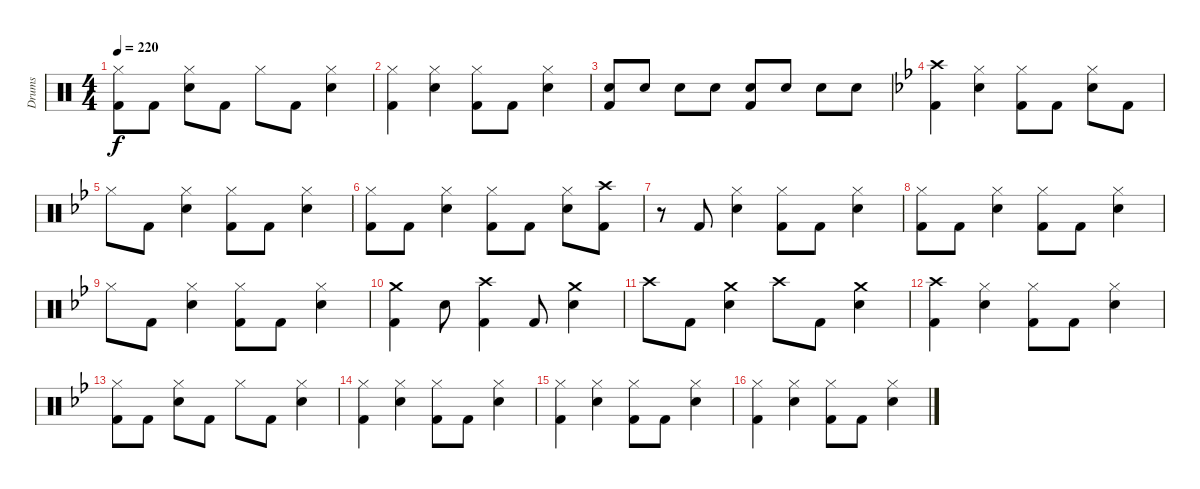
\track ("Drums" "Drums") {instrument percussion}
\staff {score}
\articulation defaults
\ts (4 4)
\tempo 220
\clef neutral
\ks aminor
("Kick (hit) 2" "Hi-Hat (closed)").8{dy f} "Kick (hit) 2".8 ("Snare (hit) 2" "Hi-Hat (closed)").8 "Kick (hit) 2".8 "Hi-Hat (closed)".8 "Kick (hit) 2".8 ("Snare (hit) 2" "Hi-Hat (closed)").4 |
("Kick (hit) 2" "Hi-Hat (closed)").4 ("Snare (hit) 2" "Hi-Hat (closed)").4 ("Kick (hit) 2" "Hi-Hat (closed)").8 "Kick (hit) 2".8 ("Snare (hit) 2" "Hi-Hat (closed)").4 |
("Kick (hit) 2" "Snare (hit) 2").8 "Snare (hit) 2".8 "Snare (hit) 2".8 "Snare (hit) 2".8 ("Kick (hit) 2" "Snare (hit) 2").8 "Snare (hit) 2".8 "Snare (hit) 2".8 "Snare (hit) 2".8 |
\ks gminor
("Kick (hit) 2" "Crash high (hit)").4 ("Snare (hit) 2" "Hi-Hat (closed)").4 ("Kick (hit) 2" "Hi-Hat (closed)").8 "Kick (hit) 2".8 ("Snare (hit) 2" "Hi-Hat (closed)").8 "Kick (hit) 2".8 |
"Hi-Hat (closed)".8 "Kick (hit) 2".8 ("Snare (hit) 2" "Hi-Hat (closed)").4 ("Kick (hit) 2" "Hi-Hat (closed)").8 "Kick (hit) 2".8 ("Snare (hit) 2" "Hi-Hat (closed)").4 |
("Kick (hit) 2" "Hi-Hat (closed)").8 "Kick (hit) 2".8 ("Snare (hit) 2" "Hi-Hat (closed)").4 ("Kick (hit) 2" "Hi-Hat (closed)").8 "Kick (hit) 2".8 ("Snare (hit) 2" "Hi-Hat (closed)").8 ("Kick (hit) 2" "Crash high (hit)").8 |
r.8 "Kick (hit) 2".8 ("Snare (hit) 2" "Hi-Hat (closed)").4 ("Kick (hit) 2" "Hi-Hat (closed)").8 "Kick (hit) 2".8 ("Snare (hit) 2" "Hi-Hat (closed)").4 |
("Kick (hit) 2" "Hi-Hat (closed)").8 "Kick (hit) 2".8 ("Snare (hit) 2" "Hi-Hat (closed)").4 ("Kick (hit) 2" "Hi-Hat (closed)").8 "Kick (hit) 2".8 ("Snare (hit) 2" "Hi-Hat (closed)").4 |
"Hi-Hat (closed)".8 "Kick (hit) 2".8 ("Snare (hit) 2" "Hi-Hat (closed)").4 ("Kick (hit) 2" "Hi-Hat (closed)").8 "Kick (hit) 2".8 ("Snare (hit) 2" "Hi-Hat (closed)").4 |
("Kick (hit) 2" "Crash medium (hit)").4 "Snare (hit) 2".8 ("Kick (hit) 2" "Crash high (hit)").4 "Kick (hit) 2".8 ("Snare (hit) 2" "Crash medium (hit)").4 |
"Crash high (hit)".8 "Kick (hit) 2".8 ("Snare (hit) 2" "Crash medium (hit)").4 "Crash high (hit)".8 "Kick (hit) 2".8 ("Snare (hit) 2" "Crash medium (hit)").4 |
("Kick (hit) 2" "Crash high (hit)").4 ("Snare (hit) 2" "Hi-Hat (closed)").4 ("Kick (hit) 2" "Hi-Hat (closed)").8 "Kick (hit) 2".8 ("Snare (hit) 2" "Hi-Hat (closed)").4 |
("Kick (hit) 2" "Hi-Hat (closed)").8 "Kick (hit) 2".8 ("Snare (hit) 2" "Hi-Hat (closed)").8 "Kick (hit) 2".8 "Hi-Hat (closed)".8 "Kick (hit) 2".8 ("Snare (hit) 2" "Hi-Hat (closed)").4 |
("Kick (hit) 2" "Hi-Hat (closed)").4 ("Snare (hit) 2" "Hi-Hat (closed)").4 ("Kick (hit) 2" "Hi-Hat (closed)").8 "Kick (hit) 2".8 ("Snare (hit) 2" "Hi-Hat (closed)").4 |
("Kick (hit) 2" "Hi-Hat (closed)").4 ("Snare (hit) 2" "Hi-Hat (closed)").4 ("Kick (hit) 2" "Hi-Hat (closed)").8 "Kick (hit) 2".8 ("Snare (hit) 2" "Hi-Hat (closed)").4 |
("Kick (hit) 2" "Hi-Hat (closed)").4 ("Snare (hit) 2" "Hi-Hat (closed)").4 ("Kick (hit) 2" "Hi-Hat (closed)").8 "Kick (hit) 2".8 ("Snare (hit) 2" "Hi-Hat (closed)").4
